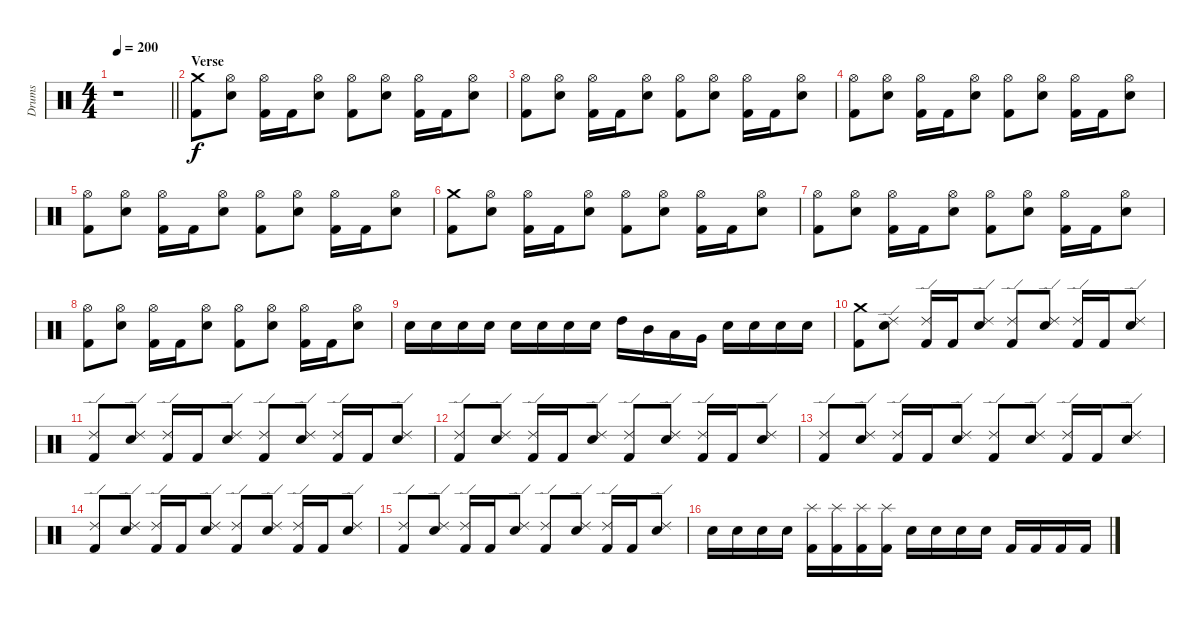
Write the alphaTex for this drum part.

\track ("Drums" "Drums") {instrument percussion}
\staff {score}
\articulation defaults
\ts (4 4)
\tempo 200
\clef neutral
\barLineRight lightlight
\ks c
r.1{dy ppp} |
\section ("" "Verse")
("Kick (hit) 2" "Crash medium (hit)").8{dy f} ("Snare (hit) 2" "Hi-Hat (open)").8 ("Kick (hit) 2" "Hi-Hat (open)").16 "Kick (hit) 2".16 ("Snare (hit) 2" "Hi-Hat (open)").8 ("Kick (hit) 2" "Hi-Hat (open)").8 ("Snare (hit) 2" "Hi-Hat (open)").8 ("Kick (hit) 2" "Hi-Hat (open)").16 "Kick (hit) 2".16 ("Snare (hit) 2" "Hi-Hat (open)").8 |
("Kick (hit) 2" "Hi-Hat (open)").8 ("Snare (hit) 2" "Hi-Hat (open)").8 ("Kick (hit) 2" "Hi-Hat (open)").16 "Kick (hit) 2".16 ("Snare (hit) 2" "Hi-Hat (open)").8 ("Kick (hit) 2" "Hi-Hat (open)").8 ("Snare (hit) 2" "Hi-Hat (open)").8 ("Kick (hit) 2" "Hi-Hat (open)").16 "Kick (hit) 2".16 ("Snare (hit) 2" "Hi-Hat (open)").8 |
("Kick (hit) 2" "Hi-Hat (open)").8 ("Snare (hit) 2" "Hi-Hat (open)").8 ("Kick (hit) 2" "Hi-Hat (open)").16 "Kick (hit) 2".16 ("Snare (hit) 2" "Hi-Hat (open)").8 ("Kick (hit) 2" "Hi-Hat (open)").8 ("Snare (hit) 2" "Hi-Hat (open)").8 ("Kick (hit) 2" "Hi-Hat (open)").16 "Kick (hit) 2".16 ("Snare (hit) 2" "Hi-Hat (open)").8 |
("Kick (hit) 2" "Hi-Hat (open)").8 ("Snare (hit) 2" "Hi-Hat (open)").8 ("Kick (hit) 2" "Hi-Hat (open)").16 "Kick (hit) 2".16 ("Snare (hit) 2" "Hi-Hat (open)").8 ("Kick (hit) 2" "Hi-Hat (open)").8 ("Snare (hit) 2" "Hi-Hat (open)").8 ("Kick (hit) 2" "Hi-Hat (open)").16 "Kick (hit) 2".16 ("Snare (hit) 2" "Hi-Hat (open)").8 |
("Kick (hit) 2" "Crash medium (hit)").8 ("Snare (hit) 2" "Hi-Hat (open)").8 ("Kick (hit) 2" "Hi-Hat (open)").16 "Kick (hit) 2".16 ("Snare (hit) 2" "Hi-Hat (open)").8 ("Kick (hit) 2" "Hi-Hat (open)").8 ("Snare (hit) 2" "Hi-Hat (open)").8 ("Kick (hit) 2" "Hi-Hat (open)").16 "Kick (hit) 2".16 ("Snare (hit) 2" "Hi-Hat (open)").8 |
("Kick (hit) 2" "Hi-Hat (open)").8 ("Snare (hit) 2" "Hi-Hat (open)").8 ("Kick (hit) 2" "Hi-Hat (open)").16 "Kick (hit) 2".16 ("Snare (hit) 2" "Hi-Hat (open)").8 ("Kick (hit) 2" "Hi-Hat (open)").8 ("Snare (hit) 2" "Hi-Hat (open)").8 ("Kick (hit) 2" "Hi-Hat (open)").16 "Kick (hit) 2".16 ("Snare (hit) 2" "Hi-Hat (open)").8 |
("Kick (hit) 2" "Hi-Hat (open)").8 ("Snare (hit) 2" "Hi-Hat (open)").8 ("Kick (hit) 2" "Hi-Hat (open)").16 "Kick (hit) 2".16 ("Snare (hit) 2" "Hi-Hat (open)").8 ("Kick (hit) 2" "Hi-Hat (open)").8 ("Snare (hit) 2" "Hi-Hat (open)").8 ("Kick (hit) 2" "Hi-Hat (open)").16 "Kick (hit) 2".16 ("Snare (hit) 2" "Hi-Hat (open)").8 |
"Snare (hit) 2".16 "Snare (hit) 2".16 "Snare (hit) 2".16 "Snare (hit) 2".16 "Snare (hit) 2".16 "Snare (hit) 2".16 "Snare (hit) 2".16 "Snare (hit) 2".16 "High Tom (hit)".16 "Mid Tom (hit)".16 "Low Tom (hit)".16 "Very Low Tom (hit)".16 "Snare (hit) 2".16 "Snare (hit) 2".16 "Snare (hit) 2".16 "Snare (hit) 2".16 |
("Kick (hit) 2" "Crash medium (hit)").8 ("Snare (hit) 2" "Ride (edge) 2").8 ("Kick (hit) 2" "Ride (edge) 2").16 "Kick (hit) 2".16 ("Snare (hit) 2" "Ride (edge) 2").8 ("Kick (hit) 2" "Ride (edge) 2").8 ("Snare (hit) 2" "Ride (edge) 2").8 ("Kick (hit) 2" "Ride (edge) 2").16 "Kick (hit) 2".16 ("Snare (hit) 2" "Ride (edge) 2").8 |
("Kick (hit) 2" "Ride (edge) 2").8 ("Snare (hit) 2" "Ride (edge) 2").8 ("Kick (hit) 2" "Ride (edge) 2").16 "Kick (hit) 2".16 ("Snare (hit) 2" "Ride (edge) 2").8 ("Kick (hit) 2" "Ride (edge) 2").8 ("Snare (hit) 2" "Ride (edge) 2").8 ("Kick (hit) 2" "Ride (edge) 2").16 "Kick (hit) 2".16 ("Snare (hit) 2" "Ride (edge) 2").8 |
("Kick (hit) 2" "Ride (edge) 2").8 ("Snare (hit) 2" "Ride (edge) 2").8 ("Kick (hit) 2" "Ride (edge) 2").16 "Kick (hit) 2".16 ("Snare (hit) 2" "Ride (edge) 2").8 ("Kick (hit) 2" "Ride (edge) 2").8 ("Snare (hit) 2" "Ride (edge) 2").8 ("Kick (hit) 2" "Ride (edge) 2").16 "Kick (hit) 2".16 ("Snare (hit) 2" "Ride (edge) 2").8 |
("Kick (hit) 2" "Ride (edge) 2").8 ("Snare (hit) 2" "Ride (edge) 2").8 ("Kick (hit) 2" "Ride (edge) 2").16 "Kick (hit) 2".16 ("Snare (hit) 2" "Ride (edge) 2").8 ("Kick (hit) 2" "Ride (edge) 2").8 ("Snare (hit) 2" "Ride (edge) 2").8 ("Kick (hit) 2" "Ride (edge) 2").16 "Kick (hit) 2".16 ("Snare (hit) 2" "Ride (edge) 2").8 |
("Kick (hit) 2" "Ride (edge) 2").8 ("Snare (hit) 2" "Ride (edge) 2").8 ("Kick (hit) 2" "Ride (edge) 2").16 "Kick (hit) 2".16 ("Snare (hit) 2" "Ride (edge) 2").8 ("Kick (hit) 2" "Ride (edge) 2").8 ("Snare (hit) 2" "Ride (edge) 2").8 ("Kick (hit) 2" "Ride (edge) 2").16 "Kick (hit) 2".16 ("Snare (hit) 2" "Ride (edge) 2").8 |
("Kick (hit) 2" "Ride (edge) 2").8 ("Snare (hit) 2" "Ride (edge) 2").8 ("Kick (hit) 2" "Ride (edge) 2").16 "Kick (hit) 2".16 ("Snare (hit) 2" "Ride (edge) 2").8 ("Kick (hit) 2" "Ride (edge) 2").8 ("Snare (hit) 2" "Ride (edge) 2").8 ("Kick (hit) 2" "Ride (edge) 2").16 "Kick (hit) 2".16 ("Snare (hit) 2" "Ride (edge) 2").8 |
"Snare (hit) 2".16 "Snare (hit) 2".16 "Snare (hit) 2".16 "Snare (hit) 2".16 ("Kick (hit) 2" "Splash (hit)").16 ("Kick (hit) 2" "Splash (hit)").16 ("Kick (hit) 2" "Splash (hit)").16 ("Kick (hit) 2" "Splash (hit)").16 "Snare (hit) 2".16 "Snare (hit) 2".16 "Snare (hit) 2".16 "Snare (hit) 2".16 "Kick (hit) 2".16 "Kick (hit) 2".16 "Kick (hit) 2".16 "Kick (hit) 2".16
